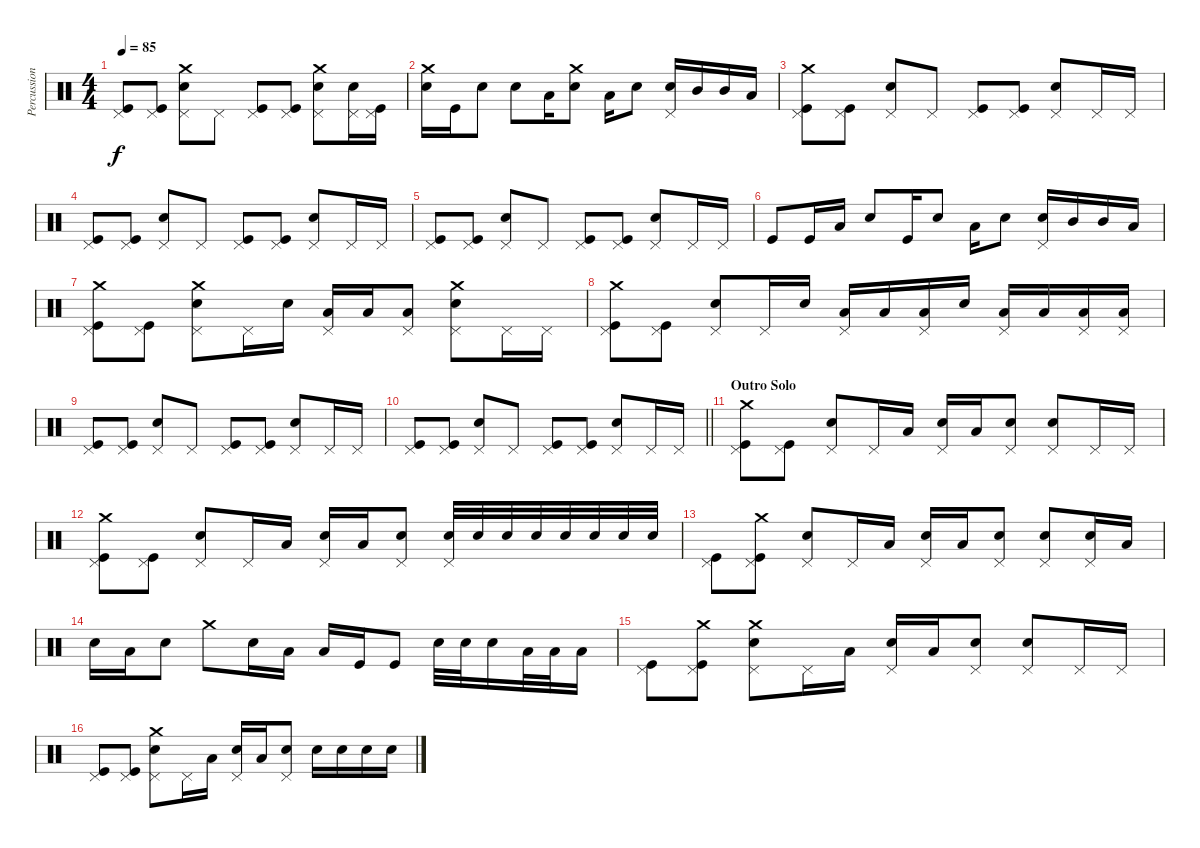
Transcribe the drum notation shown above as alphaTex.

\track ("Percussion" "Percussion") {instrument percussion}
\staff {score}
\articulation defaults
\ts (4 4)
\tempo 85
\clef neutral
\ks c
("Pedal Hi-Hat (hit)" "Kick (hit)").8{dy f} ("Pedal Hi-Hat (hit)" "Kick (hit)").8 ("Pedal Hi-Hat (hit)" "Snare (hit) 2" "Crash medium (hit)").8 "Pedal Hi-Hat (hit)".8 ("Pedal Hi-Hat (hit)" "Kick (hit)").8 ("Pedal Hi-Hat (hit)" "Kick (hit)").8 ("Pedal Hi-Hat (hit)" "Snare (hit) 2" "Crash medium (hit)").8 ("Pedal Hi-Hat (hit)" "Snare (hit) 2").16 ("Pedal Hi-Hat (hit)" "Kick (hit)").16 |
("Snare (hit) 2" "Crash medium (hit)").16 "Kick (hit)".16 "Snare (hit) 2".8 "Snare (hit) 2".8 "Low Floor Tom (hit)".16 ("Snare (hit) 2" "Crash medium (hit)").8 "Low Floor Tom (hit)".16 "Snare (hit) 2".8 ("Pedal Hi-Hat (hit)" "Snare (hit) 2").16 "Mid Tom (hit)".16 "Mid Tom (hit)".16 "Low Floor Tom (hit)".16 |
("Pedal Hi-Hat (hit)" "Crash medium (hit)" "Kick (hit)").8 ("Pedal Hi-Hat (hit)" "Kick (hit)").8 ("Pedal Hi-Hat (hit)" "Snare (hit) 2").8 "Pedal Hi-Hat (hit)".8 ("Pedal Hi-Hat (hit)" "Kick (hit)").8 ("Pedal Hi-Hat (hit)" "Kick (hit)").8 ("Pedal Hi-Hat (hit)" "Snare (hit) 2").8 "Pedal Hi-Hat (hit)".16 "Pedal Hi-Hat (hit)".16 |
("Pedal Hi-Hat (hit)" "Kick (hit)").8 ("Pedal Hi-Hat (hit)" "Kick (hit)").8 ("Pedal Hi-Hat (hit)" "Snare (hit) 2").8 "Pedal Hi-Hat (hit)".8 ("Pedal Hi-Hat (hit)" "Kick (hit)").8 ("Pedal Hi-Hat (hit)" "Kick (hit)").8 ("Pedal Hi-Hat (hit)" "Snare (hit) 2").8 "Pedal Hi-Hat (hit)".16 "Pedal Hi-Hat (hit)".16 |
("Pedal Hi-Hat (hit)" "Kick (hit)").8 ("Pedal Hi-Hat (hit)" "Kick (hit)").8 ("Pedal Hi-Hat (hit)" "Snare (hit) 2").8 "Pedal Hi-Hat (hit)".8 ("Pedal Hi-Hat (hit)" "Kick (hit)").8 ("Pedal Hi-Hat (hit)" "Kick (hit)").8 ("Pedal Hi-Hat (hit)" "Snare (hit) 2").8 "Pedal Hi-Hat (hit)".16 "Pedal Hi-Hat (hit)".16 |
"Kick (hit)".8 "Kick (hit)".16 "Low Floor Tom (hit)".16 "Snare (hit) 2".8 "Kick (hit)".16 "Snare (hit) 2".8 "Low Floor Tom (hit)".16 "Snare (hit) 2".8 ("Pedal Hi-Hat (hit)" "Snare (hit) 2").16 "Mid Tom (hit)".16 "Mid Tom (hit)".16 "Low Floor Tom (hit)".16 |
("Pedal Hi-Hat (hit)" "Crash medium (hit)" "Kick (hit)").8 ("Pedal Hi-Hat (hit)" "Kick (hit)").8 ("Pedal Hi-Hat (hit)" "Snare (hit) 2" "Crash medium (hit)").8 "Pedal Hi-Hat (hit)".16 "Snare (hit) 2".16 ("Pedal Hi-Hat (hit)" "Low Floor Tom (hit)").16 "Low Floor Tom (hit)".16 ("Pedal Hi-Hat (hit)" "Low Floor Tom (hit)").8 ("Pedal Hi-Hat (hit)" "Snare (hit) 2" "Crash medium (hit)").8 "Pedal Hi-Hat (hit)".16 "Pedal Hi-Hat (hit)".16 |
("Pedal Hi-Hat (hit)" "Crash medium (hit)" "Kick (hit)").8 ("Pedal Hi-Hat (hit)" "Kick (hit)").8 ("Pedal Hi-Hat (hit)" "Snare (hit) 2").8 "Pedal Hi-Hat (hit)".16 "Snare (hit) 2".16 ("Pedal Hi-Hat (hit)" "Low Floor Tom (hit)").16 "Low Floor Tom (hit)".16 ("Pedal Hi-Hat (hit)" "Low Floor Tom (hit)").16 "Snare (hit) 2".16 ("Pedal Hi-Hat (hit)" "Low Floor Tom (hit)").16 "Low Floor Tom (hit)".16 ("Pedal Hi-Hat (hit)" "Low Floor Tom (hit)").16 ("Pedal Hi-Hat (hit)" "Low Floor Tom (hit)").16 |
("Pedal Hi-Hat (hit)" "Kick (hit)").8 ("Pedal Hi-Hat (hit)" "Kick (hit)").8 ("Pedal Hi-Hat (hit)" "Snare (hit) 2").8 "Pedal Hi-Hat (hit)".8 ("Pedal Hi-Hat (hit)" "Kick (hit)").8 ("Pedal Hi-Hat (hit)" "Kick (hit)").8 ("Pedal Hi-Hat (hit)" "Snare (hit) 2").8 "Pedal Hi-Hat (hit)".16 "Pedal Hi-Hat (hit)".16 |
\barLineRight lightlight
("Pedal Hi-Hat (hit)" "Kick (hit)").8 ("Pedal Hi-Hat (hit)" "Kick (hit)").8 ("Pedal Hi-Hat (hit)" "Snare (hit) 2").8 "Pedal Hi-Hat (hit)".8 ("Pedal Hi-Hat (hit)" "Kick (hit)").8 ("Pedal Hi-Hat (hit)" "Kick (hit)").8 ("Pedal Hi-Hat (hit)" "Snare (hit) 2").8 "Pedal Hi-Hat (hit)".16 "Pedal Hi-Hat (hit)".16 |
\section ("" "Outro Solo")
("Pedal Hi-Hat (hit)" "Crash medium (hit)" "Kick (hit)").8 ("Pedal Hi-Hat (hit)" "Kick (hit)").8 ("Pedal Hi-Hat (hit)" "Snare (hit) 2").8 "Pedal Hi-Hat (hit)".16 "Low Floor Tom (hit)".16 ("Pedal Hi-Hat (hit)" "Snare (hit) 2").16 "Low Floor Tom (hit)".16 ("Pedal Hi-Hat (hit)" "Snare (hit) 2").8 ("Pedal Hi-Hat (hit)" "Snare (hit) 2").8 "Pedal Hi-Hat (hit)".16 "Pedal Hi-Hat (hit)".16 |
("Pedal Hi-Hat (hit)" "Crash medium (hit)" "Kick (hit)").8 ("Pedal Hi-Hat (hit)" "Kick (hit)").8 ("Pedal Hi-Hat (hit)" "Snare (hit) 2").8 "Pedal Hi-Hat (hit)".16 "Low Floor Tom (hit)".16 ("Pedal Hi-Hat (hit)" "Snare (hit) 2").16 "Low Floor Tom (hit)".16 ("Pedal Hi-Hat (hit)" "Snare (hit) 2").8 ("Pedal Hi-Hat (hit)" "Snare (hit) 2").32 "Snare (hit) 2".32 "Snare (hit) 2".32 "Snare (hit) 2".32 "Snare (hit) 2".32 "Snare (hit) 2".32 "Snare (hit) 2".32 "Snare (hit) 2".32 |
("Pedal Hi-Hat (hit)" "Kick (hit)").8 ("Pedal Hi-Hat (hit)" "Crash medium (hit)" "Kick (hit)").8 ("Pedal Hi-Hat (hit)" "Snare (hit) 2").8 "Pedal Hi-Hat (hit)".16 "Low Floor Tom (hit)".16 ("Pedal Hi-Hat (hit)" "Snare (hit) 2").16 "Low Floor Tom (hit)".16 ("Pedal Hi-Hat (hit)" "Snare (hit) 2").8 ("Pedal Hi-Hat (hit)" "Snare (hit) 2").8 ("Pedal Hi-Hat (hit)" "Snare (hit) 2").16 "Low Floor Tom (hit)".16 |
"Snare (hit) 2".16 "Low Floor Tom (hit)".16 "Snare (hit) 2".8 "Crash medium (hit)".8 "Snare (hit) 2".16 "Low Floor Tom (hit)".16 "Low Floor Tom (hit)".16 "Kick (hit)".16 "Kick (hit)".8 "Snare (hit) 2".32 "Snare (hit) 2".32 "Snare (hit) 2".16 "Low Floor Tom (hit)".32 "Low Floor Tom (hit)".32 "Low Floor Tom (hit)".16 |
("Pedal Hi-Hat (hit)" "Kick (hit)").8 ("Pedal Hi-Hat (hit)" "Crash medium (hit)" "Kick (hit)").8 ("Pedal Hi-Hat (hit)" "Snare (hit) 2" "Crash medium (hit)").8 "Pedal Hi-Hat (hit)".16 "Low Floor Tom (hit)".16 ("Pedal Hi-Hat (hit)" "Snare (hit) 2").16 "Low Floor Tom (hit)".16 ("Pedal Hi-Hat (hit)" "Snare (hit) 2").8 ("Pedal Hi-Hat (hit)" "Snare (hit) 2").8 "Pedal Hi-Hat (hit)".16 "Pedal Hi-Hat (hit)".16 |
("Pedal Hi-Hat (hit)" "Kick (hit)").8 ("Pedal Hi-Hat (hit)" "Kick (hit)").8 ("Pedal Hi-Hat (hit)" "Snare (hit) 2" "Crash medium (hit)").8 "Pedal Hi-Hat (hit)".16 "Low Floor Tom (hit)".16 ("Pedal Hi-Hat (hit)" "Snare (hit) 2").16 "Low Floor Tom (hit)".16 ("Pedal Hi-Hat (hit)" "Snare (hit) 2").8 "Snare (hit) 2".16 "Snare (hit) 2".16 "Snare (hit) 2".16 "Snare (hit) 2".16
